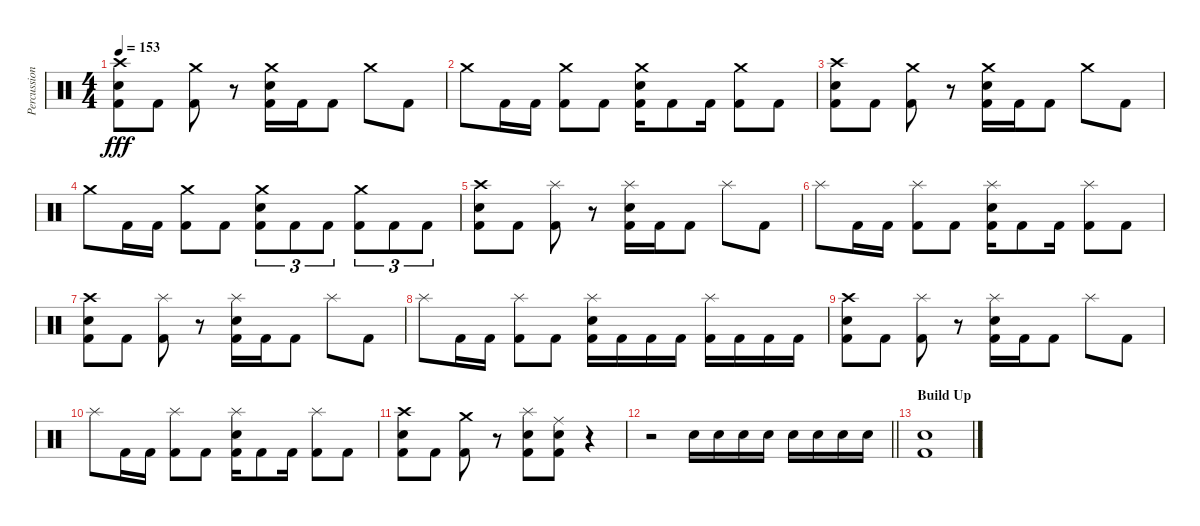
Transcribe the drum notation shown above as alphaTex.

\track ("Percussion" "Percussion") {instrument percussion}
\staff {score}
\articulation defaults
\ts (4 4)
\tempo 153
\clef neutral
\ks c
("Crash high (hit)" "Snare (hit) 2" "Kick (hit) 2").8{dy fff} "Kick (hit) 2".8 ("Crash medium (hit)" "Kick (hit) 2").8 r.8 ("Snare (hit) 2" "Crash medium (hit)" "Kick (hit) 2").16 "Kick (hit) 2".16 "Kick (hit) 2".8 "Crash medium (hit)".8 "Kick (hit) 2".8 |
"Crash medium (hit)".8 "Kick (hit) 2".16 "Kick (hit) 2".16 ("Crash medium (hit)" "Kick (hit) 2").8 "Kick (hit) 2".8 ("Snare (hit) 2" "Crash medium (hit)" "Kick (hit) 2").16 "Kick (hit) 2".8 "Kick (hit) 2".16 ("Crash medium (hit)" "Kick (hit) 2").8 "Kick (hit) 2".8 |
("Crash high (hit)" "Snare (hit) 2" "Kick (hit) 2").8 "Kick (hit) 2".8 ("Crash medium (hit)" "Kick (hit) 2").8 r.8 ("Snare (hit) 2" "Crash medium (hit)" "Kick (hit) 2").16 "Kick (hit) 2".16 "Kick (hit) 2".8 "Crash medium (hit)".8 "Kick (hit) 2".8 |
"Crash medium (hit)".8 "Kick (hit) 2".16 "Kick (hit) 2".16 ("Crash medium (hit)" "Kick (hit) 2").8 "Kick (hit) 2".8 ("Snare (hit) 2" "Crash medium (hit)" "Kick (hit) 2").8{tu (3 2)} "Kick (hit) 2".8{tu (3 2)} "Kick (hit) 2".8{tu (3 2)} ("Crash medium (hit)" "Kick (hit) 2").8{tu (3 2)} "Kick (hit) 2".8{tu (3 2)} "Kick (hit) 2".8{tu (3 2)} |
("Crash high (hit)" "Snare (hit) 2" "Kick (hit) 2").8 "Kick (hit) 2".8 ("Splash (hit)" "Kick (hit) 2").8 r.8 ("Snare (hit) 2" "Splash (hit)" "Kick (hit) 2").16 "Kick (hit) 2".16 "Kick (hit) 2".8 "Splash (hit)".8 "Kick (hit) 2".8 |
"Splash (hit)".8 "Kick (hit) 2".16 "Kick (hit) 2".16 ("Splash (hit)" "Kick (hit) 2").8 "Kick (hit) 2".8 ("Snare (hit) 2" "Splash (hit)" "Kick (hit) 2").16 "Kick (hit) 2".8 "Kick (hit) 2".16 ("Splash (hit)" "Kick (hit) 2").8 "Kick (hit) 2".8 |
("Crash high (hit)" "Snare (hit) 2" "Kick (hit) 2").8 "Kick (hit) 2".8 ("Splash (hit)" "Kick (hit) 2").8 r.8 ("Snare (hit) 2" "Splash (hit)" "Kick (hit) 2").16 "Kick (hit) 2".16 "Kick (hit) 2".8 "Splash (hit)".8 "Kick (hit) 2".8 |
"Splash (hit)".8 "Kick (hit) 2".16 "Kick (hit) 2".16 ("Splash (hit)" "Kick (hit) 2").8 "Kick (hit) 2".8 ("Snare (hit) 2" "Splash (hit)" "Kick (hit) 2").16 "Kick (hit) 2".16 "Kick (hit) 2".16 "Kick (hit) 2".16 ("Splash (hit)" "Kick (hit) 2").16 "Kick (hit) 2".16 "Kick (hit) 2".16 "Kick (hit) 2".16 |
("Crash high (hit)" "Snare (hit) 2" "Kick (hit) 2").8 "Kick (hit) 2".8 ("Splash (hit)" "Kick (hit) 2").8 r.8 ("Snare (hit) 2" "Splash (hit)" "Kick (hit) 2").16 "Kick (hit) 2".16 "Kick (hit) 2".8 "Splash (hit)".8 "Kick (hit) 2".8 |
"Splash (hit)".8 "Kick (hit) 2".16 "Kick (hit) 2".16 ("Splash (hit)" "Kick (hit) 2").8 "Kick (hit) 2".8 ("Snare (hit) 2" "Splash (hit)" "Kick (hit) 2").16 "Kick (hit) 2".8 "Kick (hit) 2".16 ("Splash (hit)" "Kick (hit) 2").8 "Kick (hit) 2".8 |
("Crash high (hit)" "Snare (hit) 2" "Kick (hit) 2").8 "Kick (hit) 2".8 ("Crash medium (hit)" "Kick (hit) 2").8 r.8 ("Snare (hit) 2" "Splash (hit)" "Kick (hit) 2").8 ("Snare (hit) 2" "Ride (middle)" "Kick (hit) 2").8 r.4 |
\barLineRight lightlight
r.2 "Snare (hit) 2".16 "Snare (hit) 2".16 "Snare (hit) 2".16 "Snare (hit) 2".16 "Snare (hit) 2".16 "Snare (hit) 2".16 "Snare (hit) 2".16 "Snare (hit) 2".16 |
\section ("" "Build Up")
("Snare (hit) 2" "Kick (hit) 2").1
